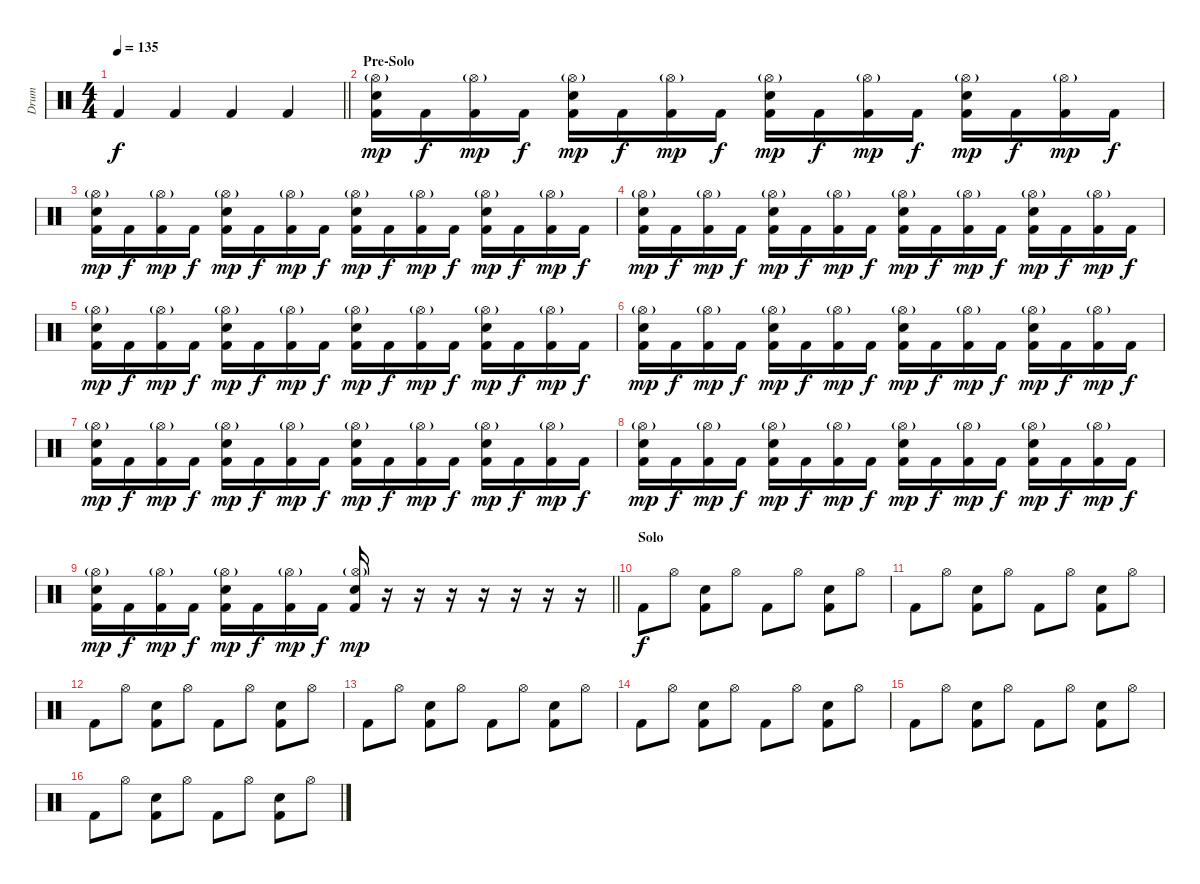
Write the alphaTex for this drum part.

\track ("Drum" "Drum") {instrument percussion}
\staff {score}
\articulation defaults
\ts (4 4)
\tempo 135
\clef neutral
\barLineRight lightlight
\ks c "Kick (hit) 2".4{dy f} "Kick (hit) 2".4 "Kick (hit) 2".4 "Kick (hit) 2".4
|
\section ("" "Pre-Solo")
("Hi-Hat (open)"{g} "Electric Snare (hit)" "Kick (hit) 2").16{dy mp} "Kick (hit) 2".16{dy f} ("Hi-Hat (open)"{g} "Kick (hit) 2").16{dy mp} "Kick (hit) 2".16{dy f} ("Hi-Hat (open)"{g} "Electric Snare (hit)" "Kick (hit) 2").16{dy mp} "Kick (hit) 2".16{dy f} ("Hi-Hat (open)"{g} "Kick (hit) 2").16{dy mp} "Kick (hit) 2".16{dy f} ("Hi-Hat (open)"{g} "Electric Snare (hit)" "Kick (hit) 2").16{dy mp} "Kick (hit) 2".16{dy f} ("Hi-Hat (open)"{g} "Kick (hit) 2").16{dy mp} "Kick (hit) 2".16{dy f} ("Hi-Hat (open)"{g} "Electric Snare (hit)" "Kick (hit) 2").16{dy mp} "Kick (hit) 2".16{dy f} ("Hi-Hat (open)"{g} "Kick (hit) 2").16{dy mp} "Kick (hit) 2".16{dy f} |
("Hi-Hat (open)"{g} "Electric Snare (hit)" "Kick (hit) 2").16{dy mp} "Kick (hit) 2".16{dy f} ("Hi-Hat (open)"{g} "Kick (hit) 2").16{dy mp} "Kick (hit) 2".16{dy f} ("Hi-Hat (open)"{g} "Electric Snare (hit)" "Kick (hit) 2").16{dy mp} "Kick (hit) 2".16{dy f} ("Hi-Hat (open)"{g} "Kick (hit) 2").16{dy mp} "Kick (hit) 2".16{dy f} ("Hi-Hat (open)"{g} "Electric Snare (hit)" "Kick (hit) 2").16{dy mp} "Kick (hit) 2".16{dy f} ("Hi-Hat (open)"{g} "Kick (hit) 2").16{dy mp} "Kick (hit) 2".16{dy f} ("Hi-Hat (open)"{g} "Electric Snare (hit)" "Kick (hit) 2").16{dy mp} "Kick (hit) 2".16{dy f} ("Hi-Hat (open)"{g} "Kick (hit) 2").16{dy mp} "Kick (hit) 2".16{dy f} |
("Hi-Hat (open)"{g} "Electric Snare (hit)" "Kick (hit) 2").16{dy mp} "Kick (hit) 2".16{dy f} ("Hi-Hat (open)"{g} "Kick (hit) 2").16{dy mp} "Kick (hit) 2".16{dy f} ("Hi-Hat (open)"{g} "Electric Snare (hit)" "Kick (hit) 2").16{dy mp} "Kick (hit) 2".16{dy f} ("Hi-Hat (open)"{g} "Kick (hit) 2").16{dy mp} "Kick (hit) 2".16{dy f} ("Hi-Hat (open)"{g} "Electric Snare (hit)" "Kick (hit) 2").16{dy mp} "Kick (hit) 2".16{dy f} ("Hi-Hat (open)"{g} "Kick (hit) 2").16{dy mp} "Kick (hit) 2".16{dy f} ("Hi-Hat (open)"{g} "Electric Snare (hit)" "Kick (hit) 2").16{dy mp} "Kick (hit) 2".16{dy f} ("Hi-Hat (open)"{g} "Kick (hit) 2").16{dy mp} "Kick (hit) 2".16{dy f} |
("Hi-Hat (open)"{g} "Electric Snare (hit)" "Kick (hit) 2").16{dy mp} "Kick (hit) 2".16{dy f} ("Hi-Hat (open)"{g} "Kick (hit) 2").16{dy mp} "Kick (hit) 2".16{dy f} ("Hi-Hat (open)"{g} "Electric Snare (hit)" "Kick (hit) 2").16{dy mp} "Kick (hit) 2".16{dy f} ("Hi-Hat (open)"{g} "Kick (hit) 2").16{dy mp} "Kick (hit) 2".16{dy f} ("Hi-Hat (open)"{g} "Electric Snare (hit)" "Kick (hit) 2").16{dy mp} "Kick (hit) 2".16{dy f} ("Hi-Hat (open)"{g} "Kick (hit) 2").16{dy mp} "Kick (hit) 2".16{dy f} ("Hi-Hat (open)"{g} "Electric Snare (hit)" "Kick (hit) 2").16{dy mp} "Kick (hit) 2".16{dy f} ("Hi-Hat (open)"{g} "Kick (hit) 2").16{dy mp} "Kick (hit) 2".16{dy f} |
("Hi-Hat (open)"{g} "Electric Snare (hit)" "Kick (hit) 2").16{dy mp} "Kick (hit) 2".16{dy f} ("Hi-Hat (open)"{g} "Kick (hit) 2").16{dy mp} "Kick (hit) 2".16{dy f} ("Hi-Hat (open)"{g} "Electric Snare (hit)" "Kick (hit) 2").16{dy mp} "Kick (hit) 2".16{dy f} ("Hi-Hat (open)"{g} "Kick (hit) 2").16{dy mp} "Kick (hit) 2".16{dy f} ("Hi-Hat (open)"{g} "Electric Snare (hit)" "Kick (hit) 2").16{dy mp} "Kick (hit) 2".16{dy f} ("Hi-Hat (open)"{g} "Kick (hit) 2").16{dy mp} "Kick (hit) 2".16{dy f} ("Hi-Hat (open)"{g} "Electric Snare (hit)" "Kick (hit) 2").16{dy mp} "Kick (hit) 2".16{dy f} ("Hi-Hat (open)"{g} "Kick (hit) 2").16{dy mp} "Kick (hit) 2".16{dy f} |
("Hi-Hat (open)"{g} "Electric Snare (hit)" "Kick (hit) 2").16{dy mp} "Kick (hit) 2".16{dy f} ("Hi-Hat (open)"{g} "Kick (hit) 2").16{dy mp} "Kick (hit) 2".16{dy f} ("Hi-Hat (open)"{g} "Electric Snare (hit)" "Kick (hit) 2").16{dy mp} "Kick (hit) 2".16{dy f} ("Hi-Hat (open)"{g} "Kick (hit) 2").16{dy mp} "Kick (hit) 2".16{dy f} ("Hi-Hat (open)"{g} "Electric Snare (hit)" "Kick (hit) 2").16{dy mp} "Kick (hit) 2".16{dy f} ("Hi-Hat (open)"{g} "Kick (hit) 2").16{dy mp} "Kick (hit) 2".16{dy f} ("Hi-Hat (open)"{g} "Electric Snare (hit)" "Kick (hit) 2").16{dy mp} "Kick (hit) 2".16{dy f} ("Hi-Hat (open)"{g} "Kick (hit) 2").16{dy mp} "Kick (hit) 2".16{dy f} |
("Hi-Hat (open)"{g} "Electric Snare (hit)" "Kick (hit) 2").16{dy mp} "Kick (hit) 2".16{dy f} ("Hi-Hat (open)"{g} "Kick (hit) 2").16{dy mp} "Kick (hit) 2".16{dy f} ("Hi-Hat (open)"{g} "Electric Snare (hit)" "Kick (hit) 2").16{dy mp} "Kick (hit) 2".16{dy f} ("Hi-Hat (open)"{g} "Kick (hit) 2").16{dy mp} "Kick (hit) 2".16{dy f} ("Hi-Hat (open)"{g} "Electric Snare (hit)" "Kick (hit) 2").16{dy mp} "Kick (hit) 2".16{dy f} ("Hi-Hat (open)"{g} "Kick (hit) 2").16{dy mp} "Kick (hit) 2".16{dy f} ("Hi-Hat (open)"{g} "Electric Snare (hit)" "Kick (hit) 2").16{dy mp} "Kick (hit) 2".16{dy f} ("Hi-Hat (open)"{g} "Kick (hit) 2").16{dy mp} "Kick (hit) 2".16{dy f} |
\barLineRight lightlight
("Hi-Hat (open)"{g} "Electric Snare (hit)" "Kick (hit) 2").16{dy mp} "Kick (hit) 2".16{dy f} ("Hi-Hat (open)"{g} "Kick (hit) 2").16{dy mp} "Kick (hit) 2".16{dy f} ("Hi-Hat (open)"{g} "Electric Snare (hit)" "Kick (hit) 2").16{dy mp} "Kick (hit) 2".16{dy f} ("Hi-Hat (open)"{g} "Kick (hit) 2").16{dy mp} "Kick (hit) 2".16{dy f} ("Hi-Hat (open)"{g} "Electric Snare (hit)" "Kick (hit) 2").16{dy mp} r.16 r.16 r.16 r.16 r.16 r.16 r.16 |
\section ("" "Solo")
"Kick (hit) 2".8{dy f} "Hi-Hat (open)".8 ("Electric Snare (hit)" "Kick (hit) 2").8 "Hi-Hat (open)".8 "Kick (hit) 2".8 "Hi-Hat (open)".8 ("Electric Snare (hit)" "Kick (hit) 2").8 "Hi-Hat (open)".8 |
"Kick (hit) 2".8 "Hi-Hat (open)".8 ("Electric Snare (hit)" "Kick (hit) 2").8 "Hi-Hat (open)".8 "Kick (hit) 2".8 "Hi-Hat (open)".8 ("Electric Snare (hit)" "Kick (hit) 2").8 "Hi-Hat (open)".8 |
"Kick (hit) 2".8 "Hi-Hat (open)".8 ("Electric Snare (hit)" "Kick (hit) 2").8 "Hi-Hat (open)".8 "Kick (hit) 2".8 "Hi-Hat (open)".8 ("Electric Snare (hit)" "Kick (hit) 2").8 "Hi-Hat (open)".8 |
"Kick (hit) 2".8 "Hi-Hat (open)".8 ("Electric Snare (hit)" "Kick (hit) 2").8 "Hi-Hat (open)".8 "Kick (hit) 2".8 "Hi-Hat (open)".8 ("Electric Snare (hit)" "Kick (hit) 2").8 "Hi-Hat (open)".8 |
"Kick (hit) 2".8 "Hi-Hat (open)".8 ("Electric Snare (hit)" "Kick (hit) 2").8 "Hi-Hat (open)".8 "Kick (hit) 2".8 "Hi-Hat (open)".8 ("Electric Snare (hit)" "Kick (hit) 2").8 "Hi-Hat (open)".8 |
"Kick (hit) 2".8 "Hi-Hat (open)".8 ("Electric Snare (hit)" "Kick (hit) 2").8 "Hi-Hat (open)".8 "Kick (hit) 2".8 "Hi-Hat (open)".8 ("Electric Snare (hit)" "Kick (hit) 2").8 "Hi-Hat (open)".8 |
"Kick (hit) 2".8 "Hi-Hat (open)".8 ("Electric Snare (hit)" "Kick (hit) 2").8 "Hi-Hat (open)".8 "Kick (hit) 2".8 "Hi-Hat (open)".8 ("Electric Snare (hit)" "Kick (hit) 2").8 "Hi-Hat (open)".8
